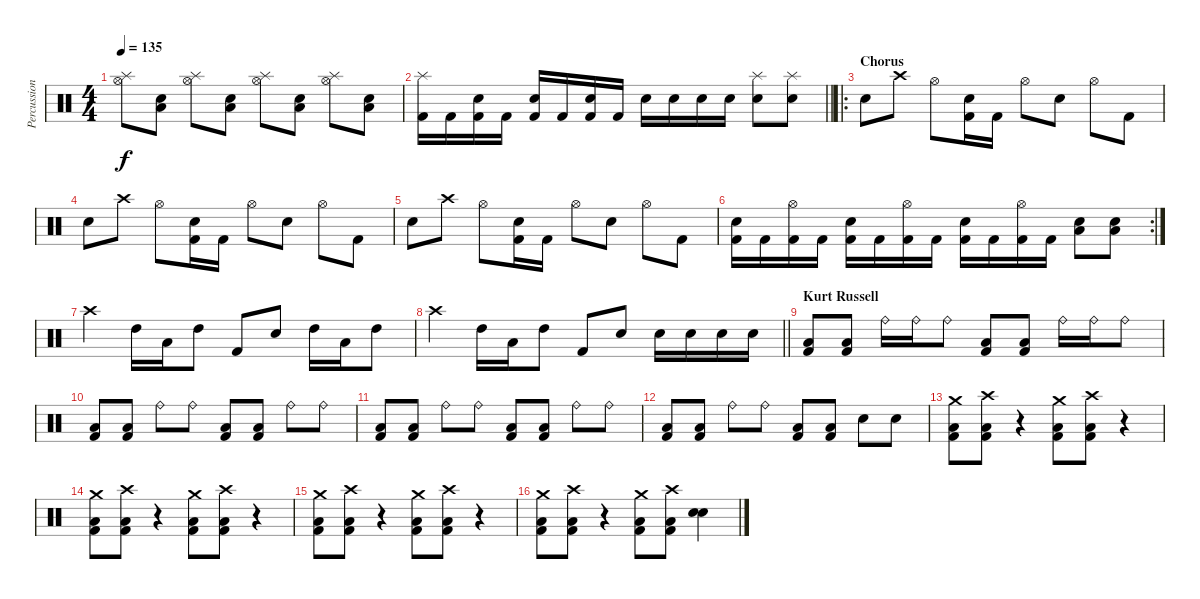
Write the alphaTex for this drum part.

\track ("Percussion" "Percussion") {instrument percussion}
\staff {score}
\articulation defaults
\ts (4 4)
\tempo 135
\clef neutral
\ks c
("Splash (hit)" "Hi-Hat (open)").8{dy f} ("Low Floor Tom (hit)" "Snare (hit) 2").8 ("Splash (hit)" "Hi-Hat (open)").8 ("Low Floor Tom (hit)" "Snare (hit) 2").8 ("Splash (hit)" "Hi-Hat (open)").8 ("Low Floor Tom (hit)" "Snare (hit) 2").8 ("Splash (hit)" "Hi-Hat (open)").8 ("Low Floor Tom (hit)" "Snare (hit) 2").8 |
\barLineRight lightlight
("Splash (hit)" "Kick (hit) 2").16 "Kick (hit) 2".16 ("Snare (hit) 2" "Kick (hit) 2").16 "Kick (hit) 2".16 ("Snare (hit) 2" "Kick (hit) 2").16 "Kick (hit) 2".16 ("Snare (hit) 2" "Kick (hit) 2").16 "Kick (hit) 2".16 "Snare (hit) 2".16 "Snare (hit) 2".16 "Snare (hit) 2".16 "Snare (hit) 2".16 ("Splash (hit)" "Snare (hit) 2").8 ("Splash (hit)" "Snare (hit) 2").8 |
\ro
\section ("" "Chorus")
"Snare (hit) 2".8 "Crash high (hit)".8 "Hi-Hat (open)".8 ("Snare (hit) 2" "Kick (hit) 2").16 "Kick (hit) 2".16 "Hi-Hat (open)".8 "Snare (hit) 2".8 "Hi-Hat (open)".8 "Kick (hit) 2".8 |
"Snare (hit) 2".8 "Crash high (hit)".8 "Hi-Hat (open)".8 ("Snare (hit) 2" "Kick (hit) 2").16 "Kick (hit) 2".16 "Hi-Hat (open)".8 "Snare (hit) 2".8 "Hi-Hat (open)".8 "Kick (hit) 2".8 |
"Snare (hit) 2".8 "Crash high (hit)".8 "Hi-Hat (open)".8 ("Snare (hit) 2" "Kick (hit) 2").16 "Kick (hit) 2".16 "Hi-Hat (open)".8 "Snare (hit) 2".8 "Hi-Hat (open)".8 "Kick (hit) 2".8 |
\rc 2
("Snare (hit) 2" "Kick (hit) 2").16 "Kick (hit) 2".16 ("Hi-Hat (open)" "Kick (hit) 2").16 "Kick (hit) 2".16 ("Snare (hit) 2" "Kick (hit) 2").16 "Kick (hit) 2".16 ("Hi-Hat (open)" "Kick (hit) 2").16 "Kick (hit) 2".16 ("Snare (hit) 2" "Kick (hit) 2").16 "Kick (hit) 2".16 ("Hi-Hat (open)" "Kick (hit) 2").16 "Kick (hit) 2".16 ("Low Floor Tom (hit)" "Snare (hit) 2").8 ("Low Floor Tom (hit)" "Snare (hit) 2").8 |
"Crash high (hit)".4 "High Tom (hit)".16 "Low Tom (hit)".16 "High Tom (hit)".8 "Kick (hit) 2".8 "Snare (hit) 2".8 "High Tom (hit)".16 "Low Tom (hit)".16 "High Tom (hit)".8 |
\barLineRight lightlight "Crash high (hit)".4 "High Tom (hit)".16 "Low Tom (hit)".16 "High Tom (hit)".8 "Kick (hit) 2".8 "Snare (hit) 2".8 "Snare (hit) 2".16 "Snare (hit) 2".16 "Snare (hit) 2".16 "Snare (hit) 2".16
|
\section ("" "Kurt Russell")
("Low Floor Tom (hit)" "Kick (hit) 2").8 ("Low Floor Tom (hit)" "Kick (hit) 2").8 "Ride (bell)".16 "Ride (bell)".16 "Ride (bell)".8 ("Low Floor Tom (hit)" "Kick (hit) 2").8 ("Low Floor Tom (hit)" "Kick (hit) 2").8 "Ride (bell)".16 "Ride (bell)".16 "Ride (bell)".8 |
("Low Floor Tom (hit)" "Kick (hit) 2").8 ("Low Floor Tom (hit)" "Kick (hit) 2").8 "Ride (bell)".8 "Ride (bell)".8 ("Low Floor Tom (hit)" "Kick (hit) 2").8 ("Low Floor Tom (hit)" "Kick (hit) 2").8 "Ride (bell)".8 "Ride (bell)".8 |
("Low Floor Tom (hit)" "Kick (hit) 2").8 ("Low Floor Tom (hit)" "Kick (hit) 2").8 "Ride (bell)".8 "Ride (bell)".8 ("Low Floor Tom (hit)" "Kick (hit) 2").8 ("Low Floor Tom (hit)" "Kick (hit) 2").8 "Ride (bell)".8 "Ride (bell)".8 |
("Low Floor Tom (hit)" "Kick (hit) 2").8 ("Low Floor Tom (hit)" "Kick (hit) 2").8 "Ride (bell)".8 "Ride (bell)".8 ("Low Floor Tom (hit)" "Kick (hit) 2").8 ("Low Floor Tom (hit)" "Kick (hit) 2").8 "Snare (hit) 2".8 "Snare (hit) 2".8 |
("Crash medium (hit)" "Low Floor Tom (hit)" "Kick (hit) 2").8 ("Crash high (hit)" "Low Floor Tom (hit)" "Kick (hit) 2").8 r.4 ("Crash medium (hit)" "Low Floor Tom (hit)" "Kick (hit) 2").8 ("Crash high (hit)" "Low Floor Tom (hit)" "Kick (hit) 2").8 r.4 |
("Crash medium (hit)" "Low Floor Tom (hit)" "Kick (hit) 2").8 ("Crash high (hit)" "Low Floor Tom (hit)" "Kick (hit) 2").8 r.4 ("Crash medium (hit)" "Low Floor Tom (hit)" "Kick (hit) 2").8 ("Crash high (hit)" "Low Floor Tom (hit)" "Kick (hit) 2").8 r.4 |
("Crash medium (hit)" "Low Floor Tom (hit)" "Kick (hit) 2").8 ("Crash high (hit)" "Low Floor Tom (hit)" "Kick (hit) 2").8 r.4 ("Crash medium (hit)" "Low Floor Tom (hit)" "Kick (hit) 2").8 ("Crash high (hit)" "Low Floor Tom (hit)" "Kick (hit) 2").8 r.4 |
("Crash medium (hit)" "Low Floor Tom (hit)" "Kick (hit) 2").8 ("Crash high (hit)" "Low Floor Tom (hit)" "Kick (hit) 2").8 r.4 ("Crash medium (hit)" "Low Floor Tom (hit)" "Kick (hit) 2").8 ("Crash high (hit)" "Low Floor Tom (hit)" "Kick (hit) 2").8 ("Electric Snare (hit)" "Snare (hit) 2").4
